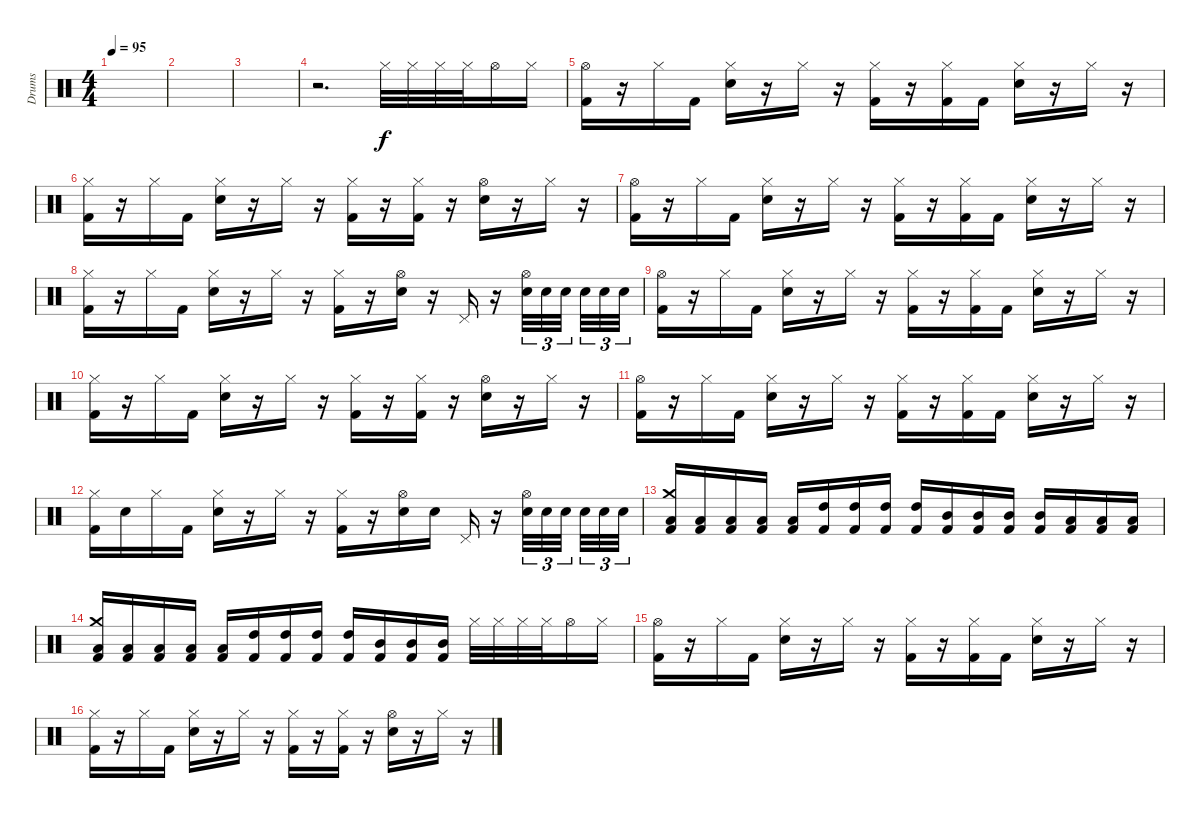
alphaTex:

\track ("Drums" "Drums") {instrument percussion}
\staff {score}
\articulation defaults
\ts (4 4)
\tempo 95
\clef neutral
\ks c
|
|
|
r.2{d} "Hi-Hat (closed)".32 "Hi-Hat (closed)".32 "Hi-Hat (closed)".32 "Hi-Hat (closed)".32 "Hi-Hat (open)".16 "Hi-Hat (closed)".16 |
("Hi-Hat (open)" "Kick (hit) 2").16 r.16 "Hi-Hat (closed)".16 "Kick (hit) 2".16 ("Hi-Hat (closed)" "Electric Snare (hit)").16 r.16 "Hi-Hat (closed)".16 r.16 ("Hi-Hat (closed)" "Kick (hit) 2").16 r.16 ("Hi-Hat (closed)" "Kick (hit) 2").16 "Kick (hit) 2".16 ("Hi-Hat (closed)" "Electric Snare (hit)").16 r.16 "Hi-Hat (closed)".16 r.16 |
("Hi-Hat (closed)" "Kick (hit) 2").16 r.16 "Hi-Hat (closed)".16 "Kick (hit) 2".16 ("Hi-Hat (closed)" "Electric Snare (hit)").16 r.16 "Hi-Hat (closed)".16 r.16 ("Hi-Hat (closed)" "Kick (hit) 2").16 r.16 ("Hi-Hat (closed)" "Kick (hit) 2").16 r.16 ("Hi-Hat (open)" "Electric Snare (hit)").16 r.16 "Hi-Hat (closed)".16 r.16 |
("Hi-Hat (open)" "Kick (hit) 2").16 r.16 "Hi-Hat (closed)".16 "Kick (hit) 2".16 ("Hi-Hat (closed)" "Electric Snare (hit)").16 r.16 "Hi-Hat (closed)".16 r.16 ("Hi-Hat (closed)" "Kick (hit) 2").16 r.16 ("Hi-Hat (closed)" "Kick (hit) 2").16 "Kick (hit) 2".16 ("Hi-Hat (closed)" "Electric Snare (hit)").16 r.16 "Hi-Hat (closed)".16 r.16 |
("Hi-Hat (closed)" "Kick (hit) 2").16 r.16 "Hi-Hat (closed)".16 "Kick (hit) 2".16 ("Hi-Hat (closed)" "Electric Snare (hit)").16 r.16 "Hi-Hat (closed)".16 r.16 ("Hi-Hat (closed)" "Kick (hit) 2").16 r.16 ("Hi-Hat (open)" "Electric Snare (hit)").16 r.16 "Pedal Hi-Hat (hit)".16 r.16 ("Hi-Hat (open)" "Electric Snare (hit)").32{tu (3 2)} "Electric Snare (hit)".32{tu (3 2)} "Electric Snare (hit)".32{tu (3 2)} "Electric Snare (hit)".32{tu (3 2)} "Electric Snare (hit)".32{tu (3 2)} "Electric Snare (hit)".32{tu (3 2)} |
("Hi-Hat (open)" "Kick (hit) 2").16 r.16 "Hi-Hat (closed)".16 "Kick (hit) 2".16 ("Hi-Hat (closed)" "Electric Snare (hit)").16 r.16 "Hi-Hat (closed)".16 r.16 ("Hi-Hat (closed)" "Kick (hit) 2").16 r.16 ("Hi-Hat (closed)" "Kick (hit) 2").16 "Kick (hit) 2".16 ("Hi-Hat (closed)" "Electric Snare (hit)").16 r.16 "Hi-Hat (closed)".16 r.16 |
("Hi-Hat (closed)" "Kick (hit) 2").16 r.16 "Hi-Hat (closed)".16 "Kick (hit) 2".16 ("Hi-Hat (closed)" "Electric Snare (hit)").16 r.16 "Hi-Hat (closed)".16 r.16 ("Hi-Hat (closed)" "Kick (hit) 2").16 r.16 ("Hi-Hat (closed)" "Kick (hit) 2").16 r.16 ("Hi-Hat (open)" "Electric Snare (hit)").16 r.16 "Hi-Hat (closed)".16 r.16 |
("Hi-Hat (open)" "Kick (hit) 2").16 r.16 "Hi-Hat (closed)".16 "Kick (hit) 2".16 ("Hi-Hat (closed)" "Electric Snare (hit)").16 r.16 "Hi-Hat (closed)".16 r.16 ("Hi-Hat (closed)" "Kick (hit) 2").16 r.16 ("Hi-Hat (closed)" "Kick (hit) 2").16 "Kick (hit) 2".16 ("Hi-Hat (closed)" "Electric Snare (hit)").16 r.16 "Hi-Hat (closed)".16 r.16 |
("Hi-Hat (closed)" "Kick (hit) 2").16 "Electric Snare (hit)".16 "Hi-Hat (closed)".16 "Kick (hit) 2".16 ("Hi-Hat (closed)" "Electric Snare (hit)").16 r.16 "Hi-Hat (closed)".16 r.16 ("Hi-Hat (closed)" "Kick (hit) 2").16 r.16 ("Hi-Hat (open)" "Electric Snare (hit)").16 "Electric Snare (hit)".16 "Pedal Hi-Hat (hit)".16 r.16 ("Hi-Hat (open)" "Electric Snare (hit)").32{tu (3 2)} "Electric Snare (hit)".32{tu (3 2)} "Electric Snare (hit)".32{tu (3 2)} "Electric Snare (hit)".32{tu (3 2)} "Electric Snare (hit)".32{tu (3 2)} "Electric Snare (hit)".32{tu (3 2)} |
("Crash medium (hit)" "Low Tom (hit)" "Kick (hit) 2").16 ("Low Tom (hit)" "Kick (hit) 2").16 ("Low Tom (hit)" "Kick (hit) 2").16 ("Low Tom (hit)" "Kick (hit) 2").16 ("Low Tom (hit)" "Kick (hit) 2").16 ("High Tom (hit)" "Kick (hit) 2").16 ("High Tom (hit)" "Kick (hit) 2").16 ("High Tom (hit)" "Kick (hit) 2").16 ("High Tom (hit)" "Kick (hit) 2").16 ("Mid Tom (hit)" "Kick (hit) 2").16 ("Mid Tom (hit)" "Kick (hit) 2").16 ("Mid Tom (hit)" "Kick (hit) 2").16 ("Mid Tom (hit)" "Kick (hit) 2").16 ("Low Tom (hit)" "Kick (hit) 2").16 ("Low Tom (hit)" "Kick (hit) 2").16 ("Low Tom (hit)" "Kick (hit) 2").16 |
("Crash medium (hit)" "Low Tom (hit)" "Kick (hit) 2").16 ("Low Tom (hit)" "Kick (hit) 2").16 ("Low Tom (hit)" "Kick (hit) 2").16 ("Low Tom (hit)" "Kick (hit) 2").16 ("Low Tom (hit)" "Kick (hit) 2").16 ("High Tom (hit)" "Kick (hit) 2").16 ("High Tom (hit)" "Kick (hit) 2").16 ("High Tom (hit)" "Kick (hit) 2").16 ("High Tom (hit)" "Kick (hit) 2").16 ("Mid Tom (hit)" "Kick (hit) 2").16 ("Mid Tom (hit)" "Kick (hit) 2").16 ("Mid Tom (hit)" "Kick (hit) 2").16 "Hi-Hat (closed)".32 "Hi-Hat (closed)".32 "Hi-Hat (closed)".32 "Hi-Hat (closed)".32 "Hi-Hat (open)".16 "Hi-Hat (closed)".16 |
("Hi-Hat (open)" "Kick (hit) 2").16 r.16 "Hi-Hat (closed)".16 "Kick (hit) 2".16 ("Hi-Hat (closed)" "Electric Snare (hit)").16 r.16 "Hi-Hat (closed)".16 r.16 ("Hi-Hat (closed)" "Kick (hit) 2").16 r.16 ("Hi-Hat (closed)" "Kick (hit) 2").16 "Kick (hit) 2".16 ("Hi-Hat (closed)" "Electric Snare (hit)").16 r.16 "Hi-Hat (closed)".16 r.16 |
("Hi-Hat (closed)" "Kick (hit) 2").16 r.16 "Hi-Hat (closed)".16 "Kick (hit) 2".16 ("Hi-Hat (closed)" "Electric Snare (hit)").16 r.16 "Hi-Hat (closed)".16 r.16 ("Hi-Hat (closed)" "Kick (hit) 2").16 r.16 ("Hi-Hat (closed)" "Kick (hit) 2").16 r.16 ("Hi-Hat (open)" "Electric Snare (hit)").16 r.16 "Hi-Hat (closed)".16 r.16
